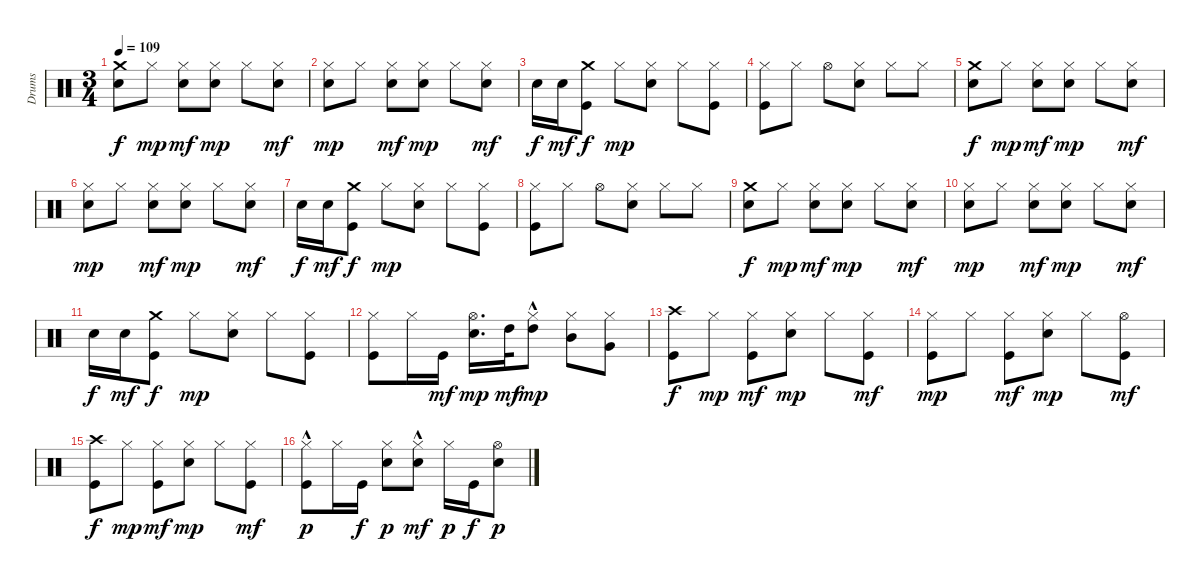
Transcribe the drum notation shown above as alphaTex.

\track ("Drums" "Drums") {instrument percussion}
\staff {score}
\articulation defaults
\ts (3 4)
\tempo 109
\clef neutral
\ks c
("Crash medium (hit)" "Electric Snare (hit)").8{dy f} "Hi-Hat (closed)".8{dy mp} ("Hi-Hat (closed)" "Electric Snare (hit)").8{dy mf} ("Hi-Hat (closed)" "Electric Snare (hit)").8{dy mp} "Hi-Hat (closed)".8 ("Hi-Hat (closed)" "Electric Snare (hit)").8{dy mf} |
("Hi-Hat (closed)" "Electric Snare (hit)").8{dy mp} "Hi-Hat (closed)".8 ("Hi-Hat (closed)" "Electric Snare (hit)").8{dy mf} ("Hi-Hat (closed)" "Electric Snare (hit)").8{dy mp} "Hi-Hat (closed)".8 ("Hi-Hat (closed)" "Electric Snare (hit)").8{dy mf} |
"Electric Snare (hit)".16{dy f} "Electric Snare (hit)".16{dy mf} ("Crash medium (hit)" "Kick (hit)").8{dy f} "Hi-Hat (closed)".8{dy mp} ("Hi-Hat (closed)" "Electric Snare (hit)").8 "Hi-Hat (closed)".8 ("Hi-Hat (closed)" "Kick (hit)").8 |
("Hi-Hat (closed)" "Kick (hit)").8 "Hi-Hat (closed)".8 "Hi-Hat (open)".8 ("Hi-Hat (closed)" "Electric Snare (hit)").8 "Hi-Hat (closed)".8 "Hi-Hat (closed)".8 |
("Crash medium (hit)" "Electric Snare (hit)").8{dy f} "Hi-Hat (closed)".8{dy mp} ("Hi-Hat (closed)" "Electric Snare (hit)").8{dy mf} ("Hi-Hat (closed)" "Electric Snare (hit)").8{dy mp} "Hi-Hat (closed)".8 ("Hi-Hat (closed)" "Electric Snare (hit)").8{dy mf} |
("Hi-Hat (closed)" "Electric Snare (hit)").8{dy mp} "Hi-Hat (closed)".8 ("Hi-Hat (closed)" "Electric Snare (hit)").8{dy mf} ("Hi-Hat (closed)" "Electric Snare (hit)").8{dy mp} "Hi-Hat (closed)".8 ("Hi-Hat (closed)" "Electric Snare (hit)").8{dy mf} |
"Electric Snare (hit)".16{dy f} "Electric Snare (hit)".16{dy mf} ("Crash medium (hit)" "Kick (hit)").8{dy f} "Hi-Hat (closed)".8{dy mp} ("Hi-Hat (closed)" "Electric Snare (hit)").8 "Hi-Hat (closed)".8 ("Hi-Hat (closed)" "Kick (hit)").8 |
("Hi-Hat (closed)" "Kick (hit)").8 "Hi-Hat (closed)".8 "Hi-Hat (open)".8 ("Hi-Hat (closed)" "Electric Snare (hit)").8 "Hi-Hat (closed)".8 "Hi-Hat (closed)".8 |
("Crash medium (hit)" "Electric Snare (hit)").8{dy f} "Hi-Hat (closed)".8{dy mp} ("Hi-Hat (closed)" "Electric Snare (hit)").8{dy mf} ("Hi-Hat (closed)" "Electric Snare (hit)").8{dy mp} "Hi-Hat (closed)".8 ("Hi-Hat (closed)" "Electric Snare (hit)").8{dy mf} |
("Hi-Hat (closed)" "Electric Snare (hit)").8{dy mp} "Hi-Hat (closed)".8 ("Hi-Hat (closed)" "Electric Snare (hit)").8{dy mf} ("Hi-Hat (closed)" "Electric Snare (hit)").8{dy mp} "Hi-Hat (closed)".8 ("Hi-Hat (closed)" "Electric Snare (hit)").8{dy mf} |
"Electric Snare (hit)".16{dy f} "Electric Snare (hit)".16{dy mf} ("Crash medium (hit)" "Kick (hit)").8{dy f} "Hi-Hat (closed)".8{dy mp} ("Hi-Hat (closed)" "Electric Snare (hit)").8 "Hi-Hat (closed)".8 ("Hi-Hat (closed)" "Kick (hit)").8 |
("Kick (hit)" "Hi-Hat (closed)").8 "Hi-Hat (closed)".16 "Kick (hit)".16{dy mf} ("Electric Snare (hit)" "Hi-Hat (open)").16{d dy mp} "High Tom (hit)".32{dy mf} ("High Tom (hit)"{hac} "Hi-Hat (closed)").8{dy mp} ("Mid Tom (hit)" "Hi-Hat (closed)").8 ("Very Low Tom (hit)" "Hi-Hat (closed)").8 |
("Crash high (hit)" "Kick (hit)").8{dy f} "Hi-Hat (closed)".8{dy mp} ("Hi-Hat (closed)" "Kick (hit)").8{dy mf} ("Hi-Hat (closed)" "Electric Snare (hit)").8{dy mp} "Hi-Hat (closed)".8 ("Hi-Hat (closed)" "Kick (hit)").8{dy mf} |
("Hi-Hat (closed)" "Kick (hit)").8{dy mp} "Hi-Hat (closed)".8 ("Hi-Hat (closed)" "Kick (hit)").8{dy mf} ("Hi-Hat (closed)" "Electric Snare (hit)").8{dy mp} "Hi-Hat (closed)".8 ("Hi-Hat (open)" "Kick (hit)").8{dy mf} |
("Crash high (hit)" "Kick (hit)").8{dy f} "Hi-Hat (closed)".8{dy mp} ("Hi-Hat (closed)" "Kick (hit)").8{dy mf} ("Hi-Hat (closed)" "Electric Snare (hit)").8{dy mp} "Hi-Hat (closed)".8 ("Hi-Hat (closed)" "Kick (hit)").8{dy mf} |
("Hi-Hat (closed)" "Kick (hit)"{hac}).8{dy p} "Hi-Hat (closed)".16 "Kick (hit)".16{dy f} ("Hi-Hat (closed)" "Electric Snare (hit)").8{dy p} ("Hi-Hat (closed)" "Electric Snare (hit)"{hac}).8{dy mf} "Hi-Hat (closed)".16{dy p} "Kick (hit)".16{dy f} ("Hi-Hat (open)" "Electric Snare (hit)").8{dy p}
